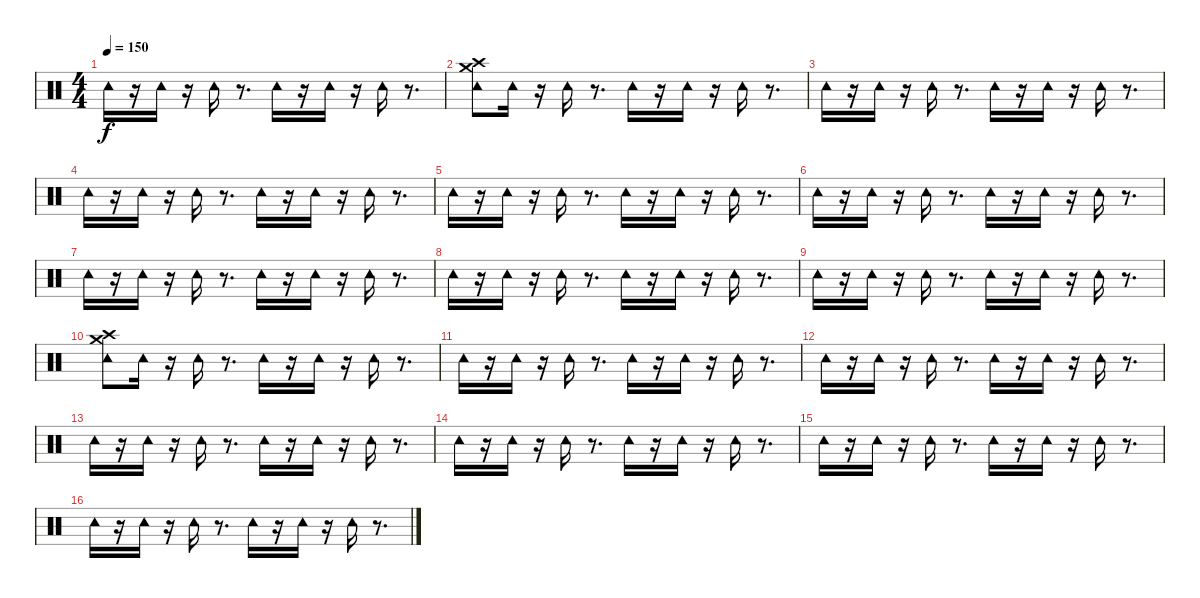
\track "" {instrument percussion}
\staff {score}
\articulation defaults
\ts (4 4)
\tempo 150
\clef neutral
\ks c "Tambourine (hit)".16{dy f}
r.16 "Tambourine (hit)".16 r.16 "Tambourine (hit)".16 r.8{d} "Tambourine (hit)".16 r.16 "Tambourine (hit)".16 r.16 "Tambourine (hit)".16 r.8{d} |
("Crash medium (hit)" "Crash high (hit)" "Tambourine (hit)").8 "Tambourine (hit)".16 r.16 "Tambourine (hit)".16 r.8{d} "Tambourine (hit)".16 r.16 "Tambourine (hit)".16 r.16 "Tambourine (hit)".16 r.8{d} |
"Tambourine (hit)".16 r.16 "Tambourine (hit)".16 r.16 "Tambourine (hit)".16 r.8{d} "Tambourine (hit)".16 r.16 "Tambourine (hit)".16 r.16 "Tambourine (hit)".16 r.8{d} |
"Tambourine (hit)".16 r.16 "Tambourine (hit)".16 r.16 "Tambourine (hit)".16 r.8{d} "Tambourine (hit)".16 r.16 "Tambourine (hit)".16 r.16 "Tambourine (hit)".16 r.8{d} |
"Tambourine (hit)".16 r.16 "Tambourine (hit)".16 r.16 "Tambourine (hit)".16 r.8{d} "Tambourine (hit)".16 r.16 "Tambourine (hit)".16 r.16 "Tambourine (hit)".16 r.8{d} |
"Tambourine (hit)".16 r.16 "Tambourine (hit)".16 r.16 "Tambourine (hit)".16 r.8{d} "Tambourine (hit)".16 r.16 "Tambourine (hit)".16 r.16 "Tambourine (hit)".16 r.8{d} |
"Tambourine (hit)".16 r.16 "Tambourine (hit)".16 r.16 "Tambourine (hit)".16 r.8{d} "Tambourine (hit)".16 r.16 "Tambourine (hit)".16 r.16 "Tambourine (hit)".16 r.8{d} |
"Tambourine (hit)".16 r.16 "Tambourine (hit)".16 r.16 "Tambourine (hit)".16 r.8{d} "Tambourine (hit)".16 r.16 "Tambourine (hit)".16 r.16 "Tambourine (hit)".16 r.8{d} |
"Tambourine (hit)".16 r.16 "Tambourine (hit)".16 r.16 "Tambourine (hit)".16 r.8{d} "Tambourine (hit)".16 r.16 "Tambourine (hit)".16 r.16 "Tambourine (hit)".16 r.8{d} |
("Crash medium (hit)" "Crash high (hit)" "Tambourine (hit)").8 "Tambourine (hit)".16 r.16 "Tambourine (hit)".16 r.8{d} "Tambourine (hit)".16 r.16 "Tambourine (hit)".16 r.16 "Tambourine (hit)".16 r.8{d} |
"Tambourine (hit)".16 r.16 "Tambourine (hit)".16 r.16 "Tambourine (hit)".16 r.8{d} "Tambourine (hit)".16 r.16 "Tambourine (hit)".16 r.16 "Tambourine (hit)".16 r.8{d} |
"Tambourine (hit)".16 r.16 "Tambourine (hit)".16 r.16 "Tambourine (hit)".16 r.8{d} "Tambourine (hit)".16 r.16 "Tambourine (hit)".16 r.16 "Tambourine (hit)".16 r.8{d} |
"Tambourine (hit)".16 r.16 "Tambourine (hit)".16 r.16 "Tambourine (hit)".16 r.8{d} "Tambourine (hit)".16 r.16 "Tambourine (hit)".16 r.16 "Tambourine (hit)".16 r.8{d} |
"Tambourine (hit)".16 r.16 "Tambourine (hit)".16 r.16 "Tambourine (hit)".16 r.8{d} "Tambourine (hit)".16 r.16 "Tambourine (hit)".16 r.16 "Tambourine (hit)".16 r.8{d} |
"Tambourine (hit)".16 r.16 "Tambourine (hit)".16 r.16 "Tambourine (hit)".16 r.8{d} "Tambourine (hit)".16 r.16 "Tambourine (hit)".16 r.16 "Tambourine (hit)".16 r.8{d} |
"Tambourine (hit)".16 r.16 "Tambourine (hit)".16 r.16 "Tambourine (hit)".16 r.8{d} "Tambourine (hit)".16 r.16 "Tambourine (hit)".16 r.16 "Tambourine (hit)".16 r.8{d}
